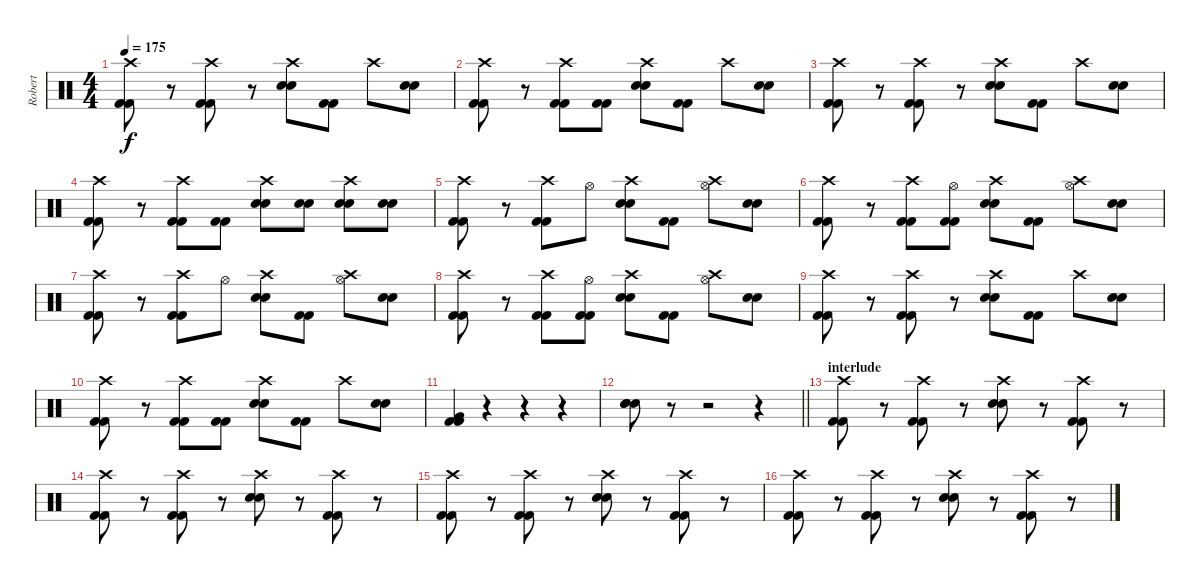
\track ("Robert" "Robert") {instrument percussion}
\staff {score}
\articulation defaults
\ts (4 4)
\tempo 175
\clef neutral
\ks c
("Crash high (hit)" "Kick (hit) 2" "Kick (hit) 2").8{dy f} r.8 ("Crash high (hit)" "Kick (hit) 2" "Kick (hit) 2").8 r.8 ("Crash high (hit)" "Electric Snare (hit)" "Electric Snare (hit)").8 ("Kick (hit) 2" "Kick (hit) 2").8 "Crash high (hit)".8 ("Electric Snare (hit)" "Electric Snare (hit)").8 |
("Crash high (hit)" "Kick (hit) 2" "Kick (hit) 2").8 r.8 ("Crash high (hit)" "Kick (hit) 2" "Kick (hit) 2").8 ("Kick (hit) 2" "Kick (hit) 2").8 ("Crash high (hit)" "Electric Snare (hit)" "Electric Snare (hit)").8 ("Kick (hit) 2" "Kick (hit) 2").8 "Crash high (hit)".8 ("Electric Snare (hit)" "Electric Snare (hit)").8 |
("Crash high (hit)" "Kick (hit) 2" "Kick (hit) 2").8 r.8 ("Crash high (hit)" "Kick (hit) 2" "Kick (hit) 2").8 r.8 ("Crash high (hit)" "Electric Snare (hit)" "Electric Snare (hit)").8 ("Kick (hit) 2" "Kick (hit) 2").8 "Crash high (hit)".8 ("Electric Snare (hit)" "Electric Snare (hit)").8 |
("Crash high (hit)" "Kick (hit) 2" "Kick (hit) 2").8 r.8 ("Crash high (hit)" "Kick (hit) 2" "Kick (hit) 2").8 ("Kick (hit) 2" "Kick (hit) 2").8 ("Crash high (hit)" "Electric Snare (hit)" "Electric Snare (hit)").8 ("Electric Snare (hit)" "Electric Snare (hit)").8 ("Crash high (hit)" "Electric Snare (hit)" "Electric Snare (hit)").8 ("Electric Snare (hit)" "Electric Snare (hit)").8 |
("Crash high (hit)" "Kick (hit) 2" "Kick (hit) 2").8 r.8 ("Crash high (hit)" "Kick (hit) 2" "Kick (hit) 2").8 "Hi-Hat (open)".8 ("Crash high (hit)" "Electric Snare (hit)" "Electric Snare (hit)").8 ("Kick (hit) 2" "Kick (hit) 2").8 ("Crash high (hit)" "Hi-Hat (open)").8 ("Electric Snare (hit)" "Electric Snare (hit)").8 |
("Crash high (hit)" "Kick (hit) 2" "Kick (hit) 2").8 r.8 ("Crash high (hit)" "Kick (hit) 2" "Kick (hit) 2").8 ("Hi-Hat (open)" "Kick (hit) 2" "Kick (hit) 2").8 ("Crash high (hit)" "Electric Snare (hit)" "Electric Snare (hit)").8 ("Kick (hit) 2" "Kick (hit) 2").8 ("Crash high (hit)" "Hi-Hat (open)").8 ("Electric Snare (hit)" "Electric Snare (hit)").8 |
("Crash high (hit)" "Kick (hit) 2" "Kick (hit) 2").8 r.8 ("Crash high (hit)" "Kick (hit) 2" "Kick (hit) 2").8 "Hi-Hat (open)".8 ("Crash high (hit)" "Electric Snare (hit)" "Electric Snare (hit)").8 ("Kick (hit) 2" "Kick (hit) 2").8 ("Crash high (hit)" "Hi-Hat (open)").8 ("Electric Snare (hit)" "Electric Snare (hit)").8 |
("Crash high (hit)" "Kick (hit) 2" "Kick (hit) 2").8 r.8 ("Crash high (hit)" "Kick (hit) 2" "Kick (hit) 2").8 ("Hi-Hat (open)" "Kick (hit) 2" "Kick (hit) 2").8 ("Crash high (hit)" "Electric Snare (hit)" "Electric Snare (hit)").8 ("Kick (hit) 2" "Kick (hit) 2").8 ("Crash high (hit)" "Hi-Hat (open)").8 ("Electric Snare (hit)" "Electric Snare (hit)").8 |
("Crash high (hit)" "Kick (hit) 2" "Kick (hit) 2").8 r.8 ("Crash high (hit)" "Kick (hit) 2" "Kick (hit) 2").8 r.8 ("Crash high (hit)" "Electric Snare (hit)" "Electric Snare (hit)").8 ("Kick (hit) 2" "Kick (hit) 2").8 "Crash high (hit)".8 ("Electric Snare (hit)" "Electric Snare (hit)").8 |
("Crash high (hit)" "Kick (hit) 2" "Kick (hit) 2").8 r.8 ("Crash high (hit)" "Kick (hit) 2" "Kick (hit) 2").8 ("Kick (hit) 2" "Kick (hit) 2").8 ("Crash high (hit)" "Electric Snare (hit)" "Electric Snare (hit)").8 ("Kick (hit) 2" "Kick (hit) 2").8 "Crash high (hit)".8 ("Electric Snare (hit)" "Electric Snare (hit)").8 |
("Very Low Tom (hit)" "Kick (hit) 2" "Kick (hit) 2").4 r.4 r.4 r.4 |
\barLineRight lightlight
("Electric Snare (hit)" "Electric Snare (hit)" "Electric Snare (hit)").8 r.8 r.2 r.4 |
\section ("" "interlude")
("Crash high (hit)" "Kick (hit) 2" "Kick (hit) 2").8 r.8 ("Crash high (hit)" "Kick (hit) 2" "Kick (hit) 2").8 r.8 ("Crash high (hit)" "Electric Snare (hit)" "Electric Snare (hit)").8 r.8 ("Crash high (hit)" "Kick (hit) 2" "Kick (hit) 2").8 r.8 |
("Crash high (hit)" "Kick (hit) 2" "Kick (hit) 2").8 r.8 ("Crash high (hit)" "Kick (hit) 2" "Kick (hit) 2").8 r.8 ("Crash high (hit)" "Electric Snare (hit)" "Electric Snare (hit)").8 r.8 ("Crash high (hit)" "Kick (hit) 2" "Kick (hit) 2").8 r.8 |
("Crash high (hit)" "Kick (hit) 2" "Kick (hit) 2").8 r.8 ("Crash high (hit)" "Kick (hit) 2" "Kick (hit) 2").8 r.8 ("Crash high (hit)" "Electric Snare (hit)" "Electric Snare (hit)").8 r.8 ("Crash high (hit)" "Kick (hit) 2" "Kick (hit) 2").8 r.8 |
("Crash high (hit)" "Kick (hit) 2" "Kick (hit) 2").8 r.8 ("Crash high (hit)" "Kick (hit) 2" "Kick (hit) 2").8 r.8 ("Crash high (hit)" "Electric Snare (hit)" "Electric Snare (hit)").8 r.8 ("Crash high (hit)" "Kick (hit) 2" "Kick (hit) 2").8 r.8
